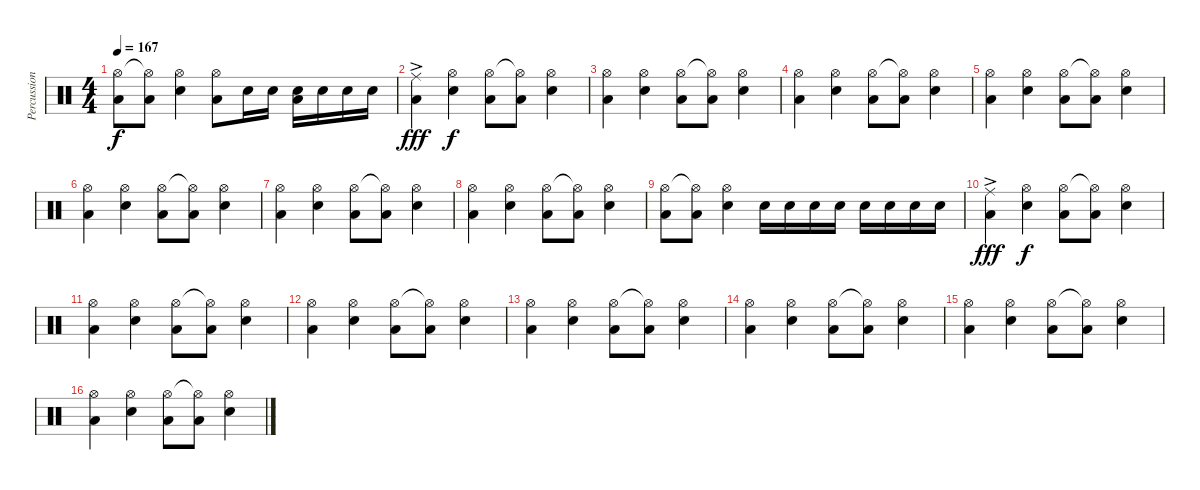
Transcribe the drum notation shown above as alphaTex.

\track ("Percussion" "Percussion") {instrument percussion}
\staff {score}
\articulation defaults
\ts (4 4)
\tempo 167
\clef neutral
\ks c
("Hi-Hat (open)" "Low Floor Tom (hit)").8{dy f} ("Hi-Hat (open)"{t} "Low Floor Tom (hit)").8 ("Hi-Hat (open)" "Snare (hit) 2").4 ("Hi-Hat (open)" "Low Floor Tom (hit)").8 "Snare (hit) 2".16 "Snare (hit) 2".16 ("Snare (hit) 2" "Low Floor Tom (hit)").16 "Snare (hit) 2".16 "Snare (hit) 2".16 "Snare (hit) 2".16 |
("Ride (middle)"{ac} "Low Floor Tom (hit)").4{dy fff} ("Hi-Hat (open)" "Snare (hit) 2").4{dy f} ("Hi-Hat (open)" "Low Floor Tom (hit)").8 ("Hi-Hat (open)"{t} "Low Floor Tom (hit)").8 ("Hi-Hat (open)" "Snare (hit) 2").4 |
("Hi-Hat (open)" "Low Floor Tom (hit)").4 ("Hi-Hat (open)" "Snare (hit) 2").4 ("Hi-Hat (open)" "Low Floor Tom (hit)").8 ("Hi-Hat (open)"{t} "Low Floor Tom (hit)").8 ("Hi-Hat (open)" "Snare (hit) 2").4 |
("Hi-Hat (open)" "Low Floor Tom (hit)").4 ("Hi-Hat (open)" "Snare (hit) 2").4 ("Hi-Hat (open)" "Low Floor Tom (hit)").8 ("Hi-Hat (open)"{t} "Low Floor Tom (hit)").8 ("Hi-Hat (open)" "Snare (hit) 2").4 |
("Hi-Hat (open)" "Low Floor Tom (hit)").4 ("Hi-Hat (open)" "Snare (hit) 2").4 ("Hi-Hat (open)" "Low Floor Tom (hit)").8 ("Hi-Hat (open)"{t} "Low Floor Tom (hit)").8 ("Hi-Hat (open)" "Snare (hit) 2").4 |
("Hi-Hat (open)" "Low Floor Tom (hit)").4 ("Hi-Hat (open)" "Snare (hit) 2").4 ("Hi-Hat (open)" "Low Floor Tom (hit)").8 ("Hi-Hat (open)"{t} "Low Floor Tom (hit)").8 ("Hi-Hat (open)" "Snare (hit) 2").4 |
("Hi-Hat (open)" "Low Floor Tom (hit)").4 ("Hi-Hat (open)" "Snare (hit) 2").4 ("Hi-Hat (open)" "Low Floor Tom (hit)").8 ("Hi-Hat (open)"{t} "Low Floor Tom (hit)").8 ("Hi-Hat (open)" "Snare (hit) 2").4 |
("Hi-Hat (open)" "Low Floor Tom (hit)").4 ("Hi-Hat (open)" "Snare (hit) 2").4 ("Hi-Hat (open)" "Low Floor Tom (hit)").8 ("Hi-Hat (open)"{t} "Low Floor Tom (hit)").8 ("Hi-Hat (open)" "Snare (hit) 2").4 |
("Hi-Hat (open)" "Low Floor Tom (hit)").8 ("Hi-Hat (open)"{t} "Low Floor Tom (hit)").8 ("Hi-Hat (open)" "Snare (hit) 2").4 "Snare (hit) 2".16 "Snare (hit) 2".16 "Snare (hit) 2".16 "Snare (hit) 2".16 "Snare (hit) 2".16 "Snare (hit) 2".16 "Snare (hit) 2".16 "Snare (hit) 2".16 |
("Ride (middle)"{ac} "Low Floor Tom (hit)").4{dy fff} ("Hi-Hat (open)" "Snare (hit) 2").4{dy f} ("Hi-Hat (open)" "Low Floor Tom (hit)").8 ("Hi-Hat (open)"{t} "Low Floor Tom (hit)").8 ("Hi-Hat (open)" "Snare (hit) 2").4 |
("Hi-Hat (open)" "Low Floor Tom (hit)").4 ("Hi-Hat (open)" "Snare (hit) 2").4 ("Hi-Hat (open)" "Low Floor Tom (hit)").8 ("Hi-Hat (open)"{t} "Low Floor Tom (hit)").8 ("Hi-Hat (open)" "Snare (hit) 2").4 |
("Hi-Hat (open)" "Low Floor Tom (hit)").4 ("Hi-Hat (open)" "Snare (hit) 2").4 ("Hi-Hat (open)" "Low Floor Tom (hit)").8 ("Hi-Hat (open)"{t} "Low Floor Tom (hit)").8 ("Hi-Hat (open)" "Snare (hit) 2").4 |
("Hi-Hat (open)" "Low Floor Tom (hit)").4 ("Hi-Hat (open)" "Snare (hit) 2").4 ("Hi-Hat (open)" "Low Floor Tom (hit)").8 ("Hi-Hat (open)"{t} "Low Floor Tom (hit)").8 ("Hi-Hat (open)" "Snare (hit) 2").4 |
("Hi-Hat (open)" "Low Floor Tom (hit)").4 ("Hi-Hat (open)" "Snare (hit) 2").4 ("Hi-Hat (open)" "Low Floor Tom (hit)").8 ("Hi-Hat (open)"{t} "Low Floor Tom (hit)").8 ("Hi-Hat (open)" "Snare (hit) 2").4 |
("Hi-Hat (open)" "Low Floor Tom (hit)").4 ("Hi-Hat (open)" "Snare (hit) 2").4 ("Hi-Hat (open)" "Low Floor Tom (hit)").8 ("Hi-Hat (open)"{t} "Low Floor Tom (hit)").8 ("Hi-Hat (open)" "Snare (hit) 2").4 |
("Hi-Hat (open)" "Low Floor Tom (hit)").4 ("Hi-Hat (open)" "Snare (hit) 2").4 ("Hi-Hat (open)" "Low Floor Tom (hit)").8 ("Hi-Hat (open)"{t} "Low Floor Tom (hit)").8 ("Hi-Hat (open)" "Snare (hit) 2").4
